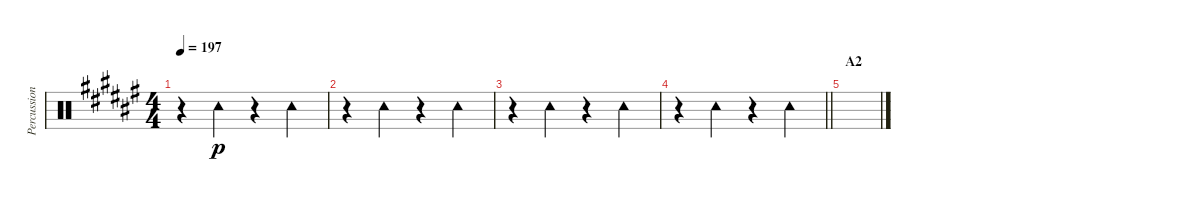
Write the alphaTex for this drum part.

\track ("Percussion (Tainaka Ritsu)" "Percussion") {instrument percussion}
\staff {score}
\articulation defaults
\ts (4 4)
\tempo 197
\clef neutral
\ks f#
r.4{dy p} "Tambourine (hit)".4 r.4 "Tambourine (hit)".4 |
r.4 "Tambourine (hit)".4 r.4 "Tambourine (hit)".4 |
r.4 "Tambourine (hit)".4 r.4 "Tambourine (hit)".4 |
\barLineRight lightlight
r.4 "Tambourine (hit)".4 r.4 "Tambourine (hit)".4 |
\section ("" "A2")
